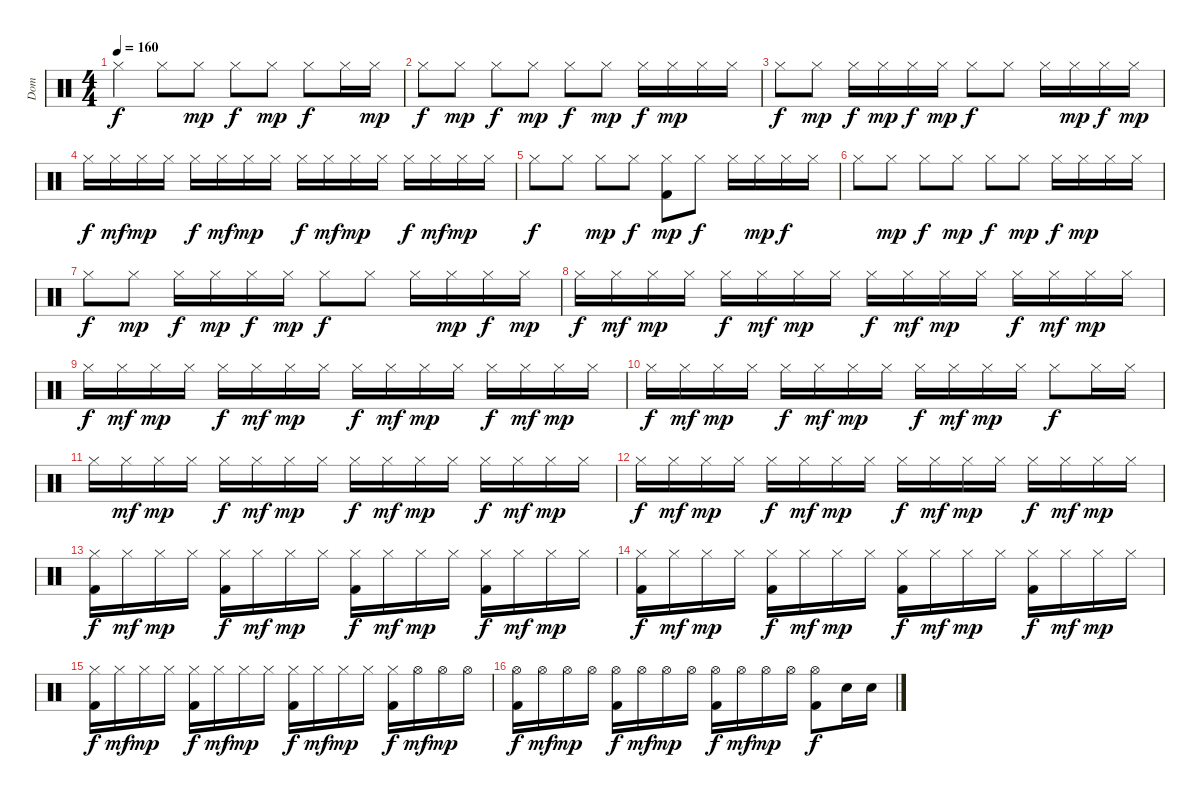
\track ("Dom" "Dom") {instrument percussion}
\staff {score}
\articulation defaults
\ts (4 4)
\tempo 160
\clef neutral
\ks c "Hi-Hat (closed)".4{dy f} "Hi-Hat (closed)".8 "Hi-Hat (closed)".8{dy mp} "Hi-Hat (closed)".8{dy f} "Hi-Hat (closed)".8{dy mp} "Hi-Hat (closed)".8{dy f} "Hi-Hat (closed)".16 "Hi-Hat (closed)".16{dy mp}
|
"Hi-Hat (closed)".8{dy f} "Hi-Hat (closed)".8{dy mp} "Hi-Hat (closed)".8{dy f} "Hi-Hat (closed)".8{dy mp} "Hi-Hat (closed)".8{dy f} "Hi-Hat (closed)".8{dy mp} "Hi-Hat (closed)".16{dy f} "Hi-Hat (closed)".16{dy mp} "Hi-Hat (closed)".16 "Hi-Hat (closed)".16 |
"Hi-Hat (closed)".8{dy f} "Hi-Hat (closed)".8{dy mp} "Hi-Hat (closed)".16{dy f} "Hi-Hat (closed)".16{dy mp} "Hi-Hat (closed)".16{dy f} "Hi-Hat (closed)".16{dy mp} "Hi-Hat (closed)".8{dy f} "Hi-Hat (closed)".8 "Hi-Hat (closed)".16 "Hi-Hat (closed)".16{dy mp} "Hi-Hat (closed)".16{dy f} "Hi-Hat (closed)".16{dy mp} |
"Hi-Hat (closed)".16{dy f} "Hi-Hat (closed)".16{dy mf} "Hi-Hat (closed)".16{dy mp} "Hi-Hat (closed)".16 "Hi-Hat (closed)".16{dy f} "Hi-Hat (closed)".16{dy mf} "Hi-Hat (closed)".16{dy mp} "Hi-Hat (closed)".16 "Hi-Hat (closed)".16{dy f} "Hi-Hat (closed)".16{dy mf} "Hi-Hat (closed)".16{dy mp} "Hi-Hat (closed)".16 "Hi-Hat (closed)".16{dy f} "Hi-Hat (closed)".16{dy mf} "Hi-Hat (closed)".16{dy mp} "Hi-Hat (closed)".16 |
"Hi-Hat (closed)".8{dy f} "Hi-Hat (closed)".8 "Hi-Hat (closed)".8{dy mp} "Hi-Hat (closed)".8{dy f} ("Hi-Hat (closed)" "Kick (hit) 2").8{dy mp} "Hi-Hat (closed)".8{dy f} "Hi-Hat (closed)".16 "Hi-Hat (closed)".16{dy mp} "Hi-Hat (closed)".16{dy f} "Hi-Hat (closed)".16 |
"Hi-Hat (closed)".8 "Hi-Hat (closed)".8{dy mp} "Hi-Hat (closed)".8{dy f} "Hi-Hat (closed)".8{dy mp} "Hi-Hat (closed)".8{dy f} "Hi-Hat (closed)".8{dy mp} "Hi-Hat (closed)".16{dy f} "Hi-Hat (closed)".16{dy mp} "Hi-Hat (closed)".16 "Hi-Hat (closed)".16 |
"Hi-Hat (closed)".8{dy f} "Hi-Hat (closed)".8{dy mp} "Hi-Hat (closed)".16{dy f} "Hi-Hat (closed)".16{dy mp} "Hi-Hat (closed)".16{dy f} "Hi-Hat (closed)".16{dy mp} "Hi-Hat (closed)".8{dy f} "Hi-Hat (closed)".8 "Hi-Hat (closed)".16 "Hi-Hat (closed)".16{dy mp} "Hi-Hat (closed)".16{dy f} "Hi-Hat (closed)".16{dy mp} |
"Hi-Hat (closed)".16{dy f} "Hi-Hat (closed)".16{dy mf} "Hi-Hat (closed)".16{dy mp} "Hi-Hat (closed)".16 "Hi-Hat (closed)".16{dy f} "Hi-Hat (closed)".16{dy mf} "Hi-Hat (closed)".16{dy mp} "Hi-Hat (closed)".16 "Hi-Hat (closed)".16{dy f} "Hi-Hat (closed)".16{dy mf} "Hi-Hat (closed)".16{dy mp} "Hi-Hat (closed)".16 "Hi-Hat (closed)".16{dy f} "Hi-Hat (closed)".16{dy mf} "Hi-Hat (closed)".16{dy mp} "Hi-Hat (closed)".16 |
"Hi-Hat (closed)".16{dy f} "Hi-Hat (closed)".16{dy mf} "Hi-Hat (closed)".16{dy mp} "Hi-Hat (closed)".16 "Hi-Hat (closed)".16{dy f} "Hi-Hat (closed)".16{dy mf} "Hi-Hat (closed)".16{dy mp} "Hi-Hat (closed)".16 "Hi-Hat (closed)".16{dy f} "Hi-Hat (closed)".16{dy mf} "Hi-Hat (closed)".16{dy mp} "Hi-Hat (closed)".16 "Hi-Hat (closed)".16{dy f} "Hi-Hat (closed)".16{dy mf} "Hi-Hat (closed)".16{dy mp} "Hi-Hat (closed)".16 |
"Hi-Hat (closed)".16{dy f} "Hi-Hat (closed)".16{dy mf} "Hi-Hat (closed)".16{dy mp} "Hi-Hat (closed)".16 "Hi-Hat (closed)".16{dy f} "Hi-Hat (closed)".16{dy mf} "Hi-Hat (closed)".16{dy mp} "Hi-Hat (closed)".16 "Hi-Hat (closed)".16{dy f} "Hi-Hat (closed)".16{dy mf} "Hi-Hat (closed)".16{dy mp} "Hi-Hat (closed)".16 "Hi-Hat (closed)".8{dy f} "Hi-Hat (closed)".16 "Hi-Hat (closed)".16 |
"Hi-Hat (closed)".16 "Hi-Hat (closed)".16{dy mf} "Hi-Hat (closed)".16{dy mp} "Hi-Hat (closed)".16 "Hi-Hat (closed)".16{dy f} "Hi-Hat (closed)".16{dy mf} "Hi-Hat (closed)".16{dy mp} "Hi-Hat (closed)".16 "Hi-Hat (closed)".16{dy f} "Hi-Hat (closed)".16{dy mf} "Hi-Hat (closed)".16{dy mp} "Hi-Hat (closed)".16 "Hi-Hat (closed)".16{dy f} "Hi-Hat (closed)".16{dy mf} "Hi-Hat (closed)".16{dy mp} "Hi-Hat (closed)".16 |
"Hi-Hat (closed)".16{dy f} "Hi-Hat (closed)".16{dy mf} "Hi-Hat (closed)".16{dy mp} "Hi-Hat (closed)".16 "Hi-Hat (closed)".16{dy f} "Hi-Hat (closed)".16{dy mf} "Hi-Hat (closed)".16{dy mp} "Hi-Hat (closed)".16 "Hi-Hat (closed)".16{dy f} "Hi-Hat (closed)".16{dy mf} "Hi-Hat (closed)".16{dy mp} "Hi-Hat (closed)".16 "Hi-Hat (closed)".16{dy f} "Hi-Hat (closed)".16{dy mf} "Hi-Hat (closed)".16{dy mp} "Hi-Hat (closed)".16 |
("Hi-Hat (closed)" "Kick (hit) 2").16{dy f} "Hi-Hat (closed)".16{dy mf} "Hi-Hat (closed)".16{dy mp} "Hi-Hat (closed)".16 ("Hi-Hat (closed)" "Kick (hit) 2").16{dy f} "Hi-Hat (closed)".16{dy mf} "Hi-Hat (closed)".16{dy mp} "Hi-Hat (closed)".16 ("Hi-Hat (closed)" "Kick (hit) 2").16{dy f} "Hi-Hat (closed)".16{dy mf} "Hi-Hat (closed)".16{dy mp} "Hi-Hat (closed)".16 ("Hi-Hat (closed)" "Kick (hit) 2").16{dy f} "Hi-Hat (closed)".16{dy mf} "Hi-Hat (closed)".16{dy mp} "Hi-Hat (closed)".16 |
("Hi-Hat (closed)" "Kick (hit) 2").16{dy f} "Hi-Hat (closed)".16{dy mf} "Hi-Hat (closed)".16{dy mp} "Hi-Hat (closed)".16 ("Hi-Hat (closed)" "Kick (hit) 2").16{dy f} "Hi-Hat (closed)".16{dy mf} "Hi-Hat (closed)".16{dy mp} "Hi-Hat (closed)".16 ("Hi-Hat (closed)" "Kick (hit) 2").16{dy f} "Hi-Hat (closed)".16{dy mf} "Hi-Hat (closed)".16{dy mp} "Hi-Hat (closed)".16 ("Hi-Hat (closed)" "Kick (hit) 2").16{dy f} "Hi-Hat (closed)".16{dy mf} "Hi-Hat (closed)".16{dy mp} "Hi-Hat (closed)".16 |
("Hi-Hat (closed)" "Kick (hit) 2").16{dy f} "Hi-Hat (closed)".16{dy mf} "Hi-Hat (closed)".16{dy mp} "Hi-Hat (closed)".16 ("Hi-Hat (closed)" "Kick (hit) 2").16{dy f} "Hi-Hat (closed)".16{dy mf} "Hi-Hat (closed)".16{dy mp} "Hi-Hat (closed)".16 ("Hi-Hat (closed)" "Kick (hit) 2").16{dy f} "Hi-Hat (closed)".16{dy mf} "Hi-Hat (closed)".16{dy mp} "Hi-Hat (closed)".16 ("Hi-Hat (closed)" "Kick (hit) 2").16{dy f} "Hi-Hat (open)".16{dy mf} "Hi-Hat (open)".16{dy mp} "Hi-Hat (open)".16 |
("Hi-Hat (open)" "Kick (hit) 2").16{dy f} "Hi-Hat (open)".16{dy mf} "Hi-Hat (open)".16{dy mp} "Hi-Hat (open)".16 ("Hi-Hat (open)" "Kick (hit) 2").16{dy f} "Hi-Hat (open)".16{dy mf} "Hi-Hat (open)".16{dy mp} "Hi-Hat (open)".16 ("Hi-Hat (open)" "Kick (hit) 2").16{dy f} "Hi-Hat (open)".16{dy mf} "Hi-Hat (open)".16{dy mp} "Hi-Hat (open)".16 ("Hi-Hat (open)" "Kick (hit) 2").8{dy f} "Snare (hit) 2".16 "Snare (hit) 2".16
